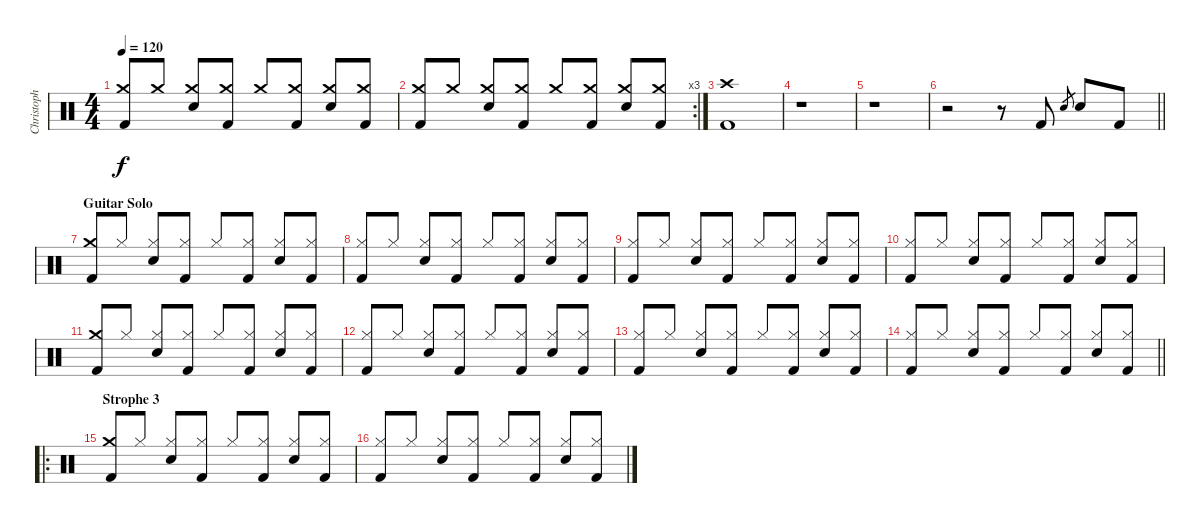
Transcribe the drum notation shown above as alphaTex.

\track ("Christoph" "Christoph") {instrument percussion}
\staff {score}
\articulation defaults
\ts (4 4)
\tempo 120
\clef neutral
\ks c
("Crash medium (hit)" "Kick (hit) 2").8{dy f beam Up} "Crash medium (hit)".8{beam Up} ("Crash medium (hit)" "Snare (hit) 2").8{beam Up} ("Crash medium (hit)" "Kick (hit) 2").8{beam Up} "Crash medium (hit)".8{beam Up} ("Crash medium (hit)" "Kick (hit) 2").8{beam Up} ("Crash medium (hit)" "Snare (hit) 2").8{beam Up} ("Crash medium (hit)" "Kick (hit) 2").8{beam Up} |
\rc 3
("Crash medium (hit)" "Kick (hit) 2").8{beam Up} "Crash medium (hit)".8{beam Up} ("Crash medium (hit)" "Snare (hit) 2").8{beam Up} ("Crash medium (hit)" "Kick (hit) 2").8{beam Up} "Crash medium (hit)".8{beam Up} ("Crash medium (hit)" "Kick (hit) 2").8{beam Up} ("Crash medium (hit)" "Snare (hit) 2").8{beam Up} ("Crash medium (hit)" "Kick (hit) 2").8{beam Up} |
("Crash high (hit)" "Kick (hit) 2").1 |
r.1 |
r.1 |
\barLineRight lightlight
r.2 r.8 "Kick (hit) 2".8 "Snare (hit) 2".8{gr} "Snare (hit) 2".8 "Kick (hit) 2".8 |
\section ("" "Guitar Solo")
("Crash medium (hit)" "Kick (hit) 2").8{beam Up} "Hi-Hat (closed)".8{beam Up} ("Hi-Hat (closed)" "Snare (hit) 2").8{beam Up} ("Hi-Hat (closed)" "Kick (hit) 2").8{beam Up} "Hi-Hat (closed)".8{beam Up} ("Hi-Hat (closed)" "Kick (hit) 2").8{beam Up} ("Hi-Hat (closed)" "Snare (hit) 2").8{beam Up} ("Hi-Hat (closed)" "Kick (hit) 2").8{beam Up} |
("Hi-Hat (closed)" "Kick (hit) 2").8{beam Up} "Hi-Hat (closed)".8{beam Up} ("Hi-Hat (closed)" "Snare (hit) 2").8{beam Up} ("Hi-Hat (closed)" "Kick (hit) 2").8{beam Up} "Hi-Hat (closed)".8{beam Up} ("Hi-Hat (closed)" "Kick (hit) 2").8{beam Up} ("Hi-Hat (closed)" "Snare (hit) 2").8{beam Up} ("Hi-Hat (closed)" "Kick (hit) 2").8{beam Up} |
("Hi-Hat (closed)" "Kick (hit) 2").8{beam Up} "Hi-Hat (closed)".8{beam Up} ("Hi-Hat (closed)" "Snare (hit) 2").8{beam Up} ("Hi-Hat (closed)" "Kick (hit) 2").8{beam Up} "Hi-Hat (closed)".8{beam Up} ("Hi-Hat (closed)" "Kick (hit) 2").8{beam Up} ("Hi-Hat (closed)" "Snare (hit) 2").8{beam Up} ("Hi-Hat (closed)" "Kick (hit) 2").8{beam Up} |
("Hi-Hat (closed)" "Kick (hit) 2").8{beam Up} "Hi-Hat (closed)".8{beam Up} ("Hi-Hat (closed)" "Snare (hit) 2").8{beam Up} ("Hi-Hat (closed)" "Kick (hit) 2").8{beam Up} "Hi-Hat (closed)".8{beam Up} ("Hi-Hat (closed)" "Kick (hit) 2").8{beam Up} ("Hi-Hat (closed)" "Snare (hit) 2").8{beam Up} ("Hi-Hat (closed)" "Kick (hit) 2").8{beam Up} |
("Crash medium (hit)" "Kick (hit) 2").8{beam Up} "Hi-Hat (closed)".8{beam Up} ("Hi-Hat (closed)" "Snare (hit) 2").8{beam Up} ("Hi-Hat (closed)" "Kick (hit) 2").8{beam Up} "Hi-Hat (closed)".8{beam Up} ("Hi-Hat (closed)" "Kick (hit) 2").8{beam Up} ("Hi-Hat (closed)" "Snare (hit) 2").8{beam Up} ("Hi-Hat (closed)" "Kick (hit) 2").8{beam Up} |
("Hi-Hat (closed)" "Kick (hit) 2").8{beam Up} "Hi-Hat (closed)".8{beam Up} ("Hi-Hat (closed)" "Snare (hit) 2").8{beam Up} ("Hi-Hat (closed)" "Kick (hit) 2").8{beam Up} "Hi-Hat (closed)".8{beam Up} ("Hi-Hat (closed)" "Kick (hit) 2").8{beam Up} ("Hi-Hat (closed)" "Snare (hit) 2").8{beam Up} ("Hi-Hat (closed)" "Kick (hit) 2").8{beam Up} |
("Hi-Hat (closed)" "Kick (hit) 2").8{beam Up} "Hi-Hat (closed)".8{beam Up} ("Hi-Hat (closed)" "Snare (hit) 2").8{beam Up} ("Hi-Hat (closed)" "Kick (hit) 2").8{beam Up} "Hi-Hat (closed)".8{beam Up} ("Hi-Hat (closed)" "Kick (hit) 2").8{beam Up} ("Hi-Hat (closed)" "Snare (hit) 2").8{beam Up} ("Hi-Hat (closed)" "Kick (hit) 2").8{beam Up} |
\barLineRight lightlight
("Hi-Hat (closed)" "Kick (hit) 2").8{beam Up} "Hi-Hat (closed)".8{beam Up} ("Hi-Hat (closed)" "Snare (hit) 2").8{beam Up} ("Hi-Hat (closed)" "Kick (hit) 2").8{beam Up} "Hi-Hat (closed)".8{beam Up} ("Hi-Hat (closed)" "Kick (hit) 2").8{beam Up} ("Hi-Hat (closed)" "Snare (hit) 2").8{beam Up} ("Hi-Hat (closed)" "Kick (hit) 2").8{beam Up} |
\ro
\section ("" "Strophe 3")
("Crash medium (hit)" "Kick (hit) 2").8{beam Up} "Hi-Hat (closed)".8{beam Up} ("Hi-Hat (closed)" "Snare (hit) 2").8{beam Up} ("Hi-Hat (closed)" "Kick (hit) 2").8{beam Up} "Hi-Hat (closed)".8{beam Up} ("Hi-Hat (closed)" "Kick (hit) 2").8{beam Up} ("Hi-Hat (closed)" "Snare (hit) 2").8{beam Up} ("Hi-Hat (closed)" "Kick (hit) 2").8{beam Up} |
("Hi-Hat (closed)" "Kick (hit) 2").8{beam Up} "Hi-Hat (closed)".8{beam Up} ("Hi-Hat (closed)" "Snare (hit) 2").8{beam Up} ("Hi-Hat (closed)" "Kick (hit) 2").8{beam Up} "Hi-Hat (closed)".8{beam Up} ("Hi-Hat (closed)" "Kick (hit) 2").8{beam Up} ("Hi-Hat (closed)" "Snare (hit) 2").8{beam Up} ("Hi-Hat (closed)" "Kick (hit) 2").8{beam Up}
